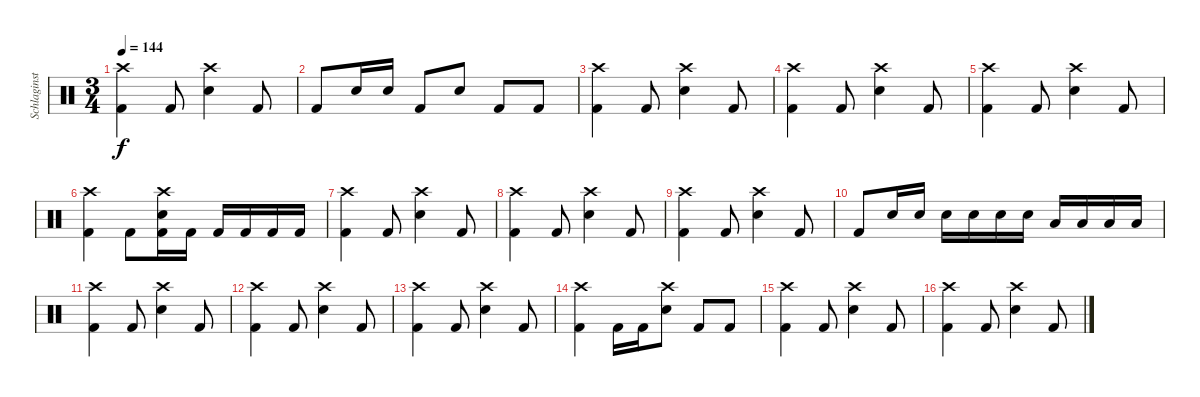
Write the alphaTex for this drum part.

\track ("Schlaginstrumente - Auswahl" "Schlaginst") {instrument percussion}
\staff {score}
\articulation defaults
\ts (3 4)
\tempo 144
\clef neutral
\ks c
("Crash high (hit)" "Kick (hit) 2").4{dy f} "Kick (hit) 2".8 ("Crash high (hit)" "Snare (hit) 2").4 "Kick (hit) 2".8 |
"Kick (hit) 2".8 "Snare (hit) 2".16 "Snare (hit) 2".16 "Kick (hit) 2".8 "Snare (hit) 2".8 "Kick (hit) 2".8 "Kick (hit) 2".8 |
("Crash high (hit)" "Kick (hit) 2").4 "Kick (hit) 2".8 ("Crash high (hit)" "Snare (hit) 2").4 "Kick (hit) 2".8 |
("Crash high (hit)" "Kick (hit) 2").4 "Kick (hit) 2".8 ("Crash high (hit)" "Snare (hit) 2").4 "Kick (hit) 2".8 |
("Crash high (hit)" "Kick (hit) 2").4 "Kick (hit) 2".8 ("Crash high (hit)" "Snare (hit) 2").4 "Kick (hit) 2".8 |
("Crash high (hit)" "Kick (hit) 2").4 "Kick (hit) 2".8 ("Crash high (hit)" "Snare (hit) 2" "Kick (hit) 2").16 "Kick (hit) 2".16 "Kick (hit) 2".16 "Kick (hit) 2".16 "Kick (hit) 2".16 "Kick (hit) 2".16 |
("Crash high (hit)" "Kick (hit) 2").4 "Kick (hit) 2".8 ("Crash high (hit)" "Snare (hit) 2").4 "Kick (hit) 2".8 |
("Crash high (hit)" "Kick (hit) 2").4 "Kick (hit) 2".8 ("Crash high (hit)" "Snare (hit) 2").4 "Kick (hit) 2".8 |
("Crash high (hit)" "Kick (hit) 2").4 "Kick (hit) 2".8 ("Crash high (hit)" "Snare (hit) 2").4 "Kick (hit) 2".8 |
"Kick (hit) 2".8 "Snare (hit) 2".16 "Snare (hit) 2".16 "Snare (hit) 2".16 "Snare (hit) 2".16 "Snare (hit) 2".16 "Snare (hit) 2".16 "Low Floor Tom (hit)".16 "Low Floor Tom (hit)".16 "Low Floor Tom (hit)".16 "Low Floor Tom (hit)".16 |
("Crash high (hit)" "Kick (hit) 2").4 "Kick (hit) 2".8 ("Crash high (hit)" "Snare (hit) 2").4 "Kick (hit) 2".8 |
("Crash high (hit)" "Kick (hit) 2").4 "Kick (hit) 2".8 ("Crash high (hit)" "Snare (hit) 2").4 "Kick (hit) 2".8 |
("Crash high (hit)" "Kick (hit) 2").4 "Kick (hit) 2".8 ("Crash high (hit)" "Snare (hit) 2").4 "Kick (hit) 2".8 |
("Crash high (hit)" "Kick (hit) 2").4 "Kick (hit) 2".16 "Kick (hit) 2".16 ("Crash high (hit)" "Snare (hit) 2").8 "Kick (hit) 2".8 "Kick (hit) 2".8 |
("Crash high (hit)" "Kick (hit) 2").4 "Kick (hit) 2".8 ("Crash high (hit)" "Snare (hit) 2").4 "Kick (hit) 2".8 |
("Crash high (hit)" "Kick (hit) 2").4 "Kick (hit) 2".8 ("Crash high (hit)" "Snare (hit) 2").4 "Kick (hit) 2".8
